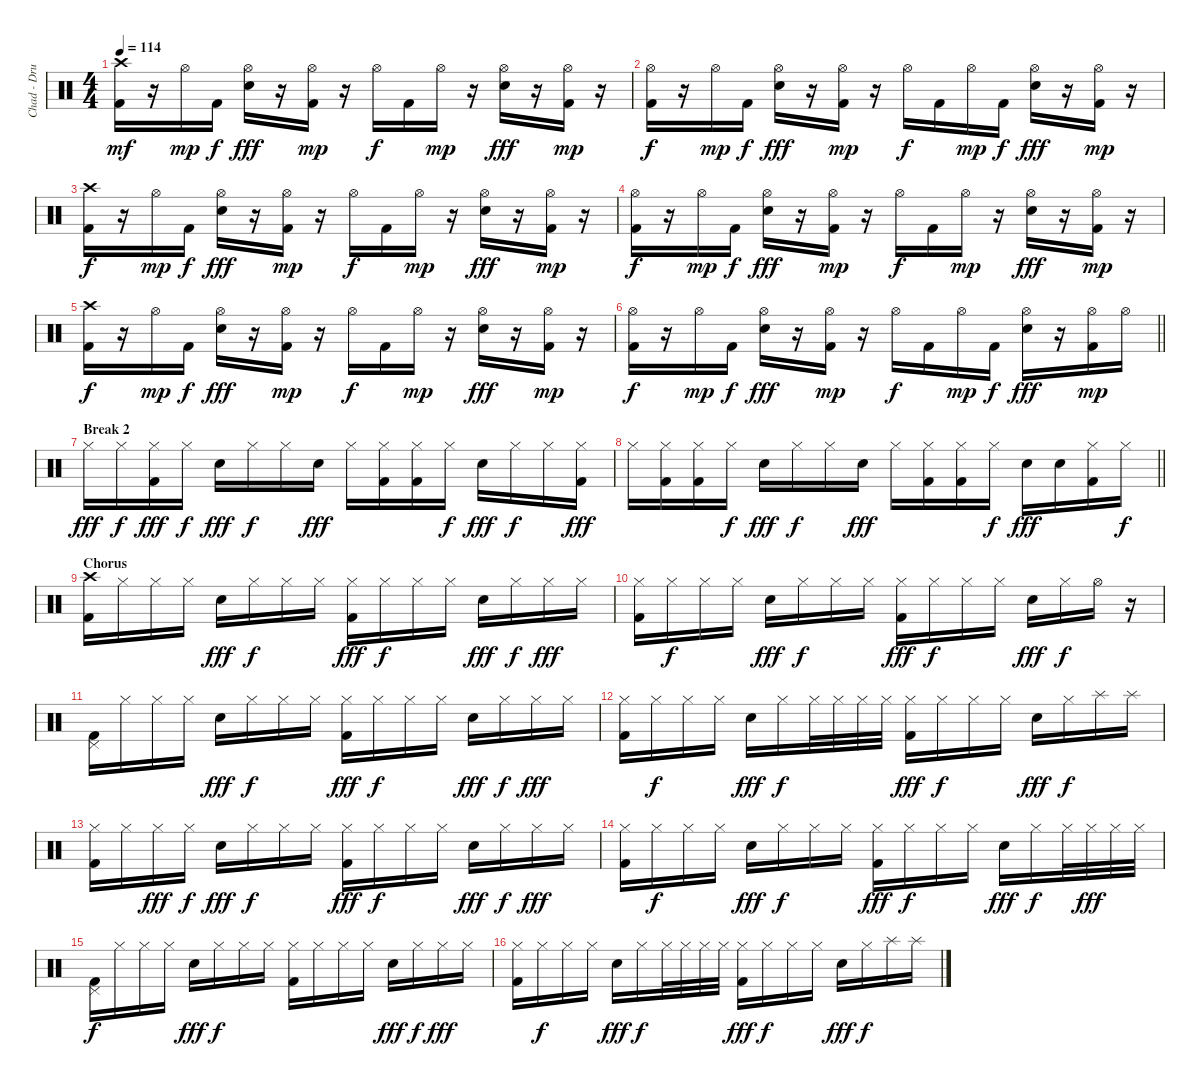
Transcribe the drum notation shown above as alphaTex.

\track ("Chad - Drums" "Chad - Dru") {instrument percussion}
\staff {score}
\articulation defaults
\ts (4 4)
\tempo 114
\clef neutral
\ks c
("Crash high (hit)" "Kick (hit) 2").16{dy mf} r.16 "Hi-Hat (open)".16{dy mp} "Kick (hit) 2".16{dy f} ("Hi-Hat (open)" "Electric Snare (hit)").16{dy fff} r.16 ("Hi-Hat (open)" "Kick (hit) 2").16{dy mp} r.16 "Hi-Hat (open)".16{dy f} "Kick (hit) 2".16 "Hi-Hat (open)".16{dy mp} r.16 ("Hi-Hat (open)" "Electric Snare (hit)").16{dy fff} r.16 ("Hi-Hat (open)" "Kick (hit) 2").16{dy mp} r.16 |
("Hi-Hat (open)" "Kick (hit) 2").16{dy f} r.16 "Hi-Hat (open)".16{dy mp} "Kick (hit) 2".16{dy f} ("Hi-Hat (open)" "Electric Snare (hit)").16{dy fff} r.16 ("Hi-Hat (open)" "Kick (hit) 2").16{dy mp} r.16 "Hi-Hat (open)".16{dy f} "Kick (hit) 2".16 "Hi-Hat (open)".16{dy mp} "Kick (hit) 2".16{dy f} ("Hi-Hat (open)" "Electric Snare (hit)").16{dy fff} r.16 ("Hi-Hat (open)" "Kick (hit) 2").16{dy mp} r.16 |
("Crash high (hit)" "Kick (hit) 2").16{dy f} r.16 "Hi-Hat (open)".16{dy mp} "Kick (hit) 2".16{dy f} ("Hi-Hat (open)" "Electric Snare (hit)").16{dy fff} r.16 ("Hi-Hat (open)" "Kick (hit) 2").16{dy mp} r.16 "Hi-Hat (open)".16{dy f} "Kick (hit) 2".16 "Hi-Hat (open)".16{dy mp} r.16 ("Hi-Hat (open)" "Electric Snare (hit)").16{dy fff} r.16 ("Hi-Hat (open)" "Kick (hit) 2").16{dy mp} r.16 |
("Hi-Hat (open)" "Kick (hit) 2").16{dy f} r.16 "Hi-Hat (open)".16{dy mp} "Kick (hit) 2".16{dy f} ("Hi-Hat (open)" "Electric Snare (hit)").16{dy fff} r.16 ("Hi-Hat (open)" "Kick (hit) 2").16{dy mp} r.16 "Hi-Hat (open)".16{dy f} "Kick (hit) 2".16 "Hi-Hat (open)".16{dy mp} r.16 ("Hi-Hat (open)" "Electric Snare (hit)").16{dy fff} r.16 ("Hi-Hat (open)" "Kick (hit) 2").16{dy mp} r.16 |
("Crash high (hit)" "Kick (hit) 2").16{dy f} r.16 "Hi-Hat (open)".16{dy mp} "Kick (hit) 2".16{dy f} ("Hi-Hat (open)" "Electric Snare (hit)").16{dy fff} r.16 ("Hi-Hat (open)" "Kick (hit) 2").16{dy mp} r.16 "Hi-Hat (open)".16{dy f} "Kick (hit) 2".16 "Hi-Hat (open)".16{dy mp} r.16 ("Hi-Hat (open)" "Electric Snare (hit)").16{dy fff} r.16 ("Hi-Hat (open)" "Kick (hit) 2").16{dy mp} r.16 |
\barLineRight lightlight
("Hi-Hat (open)" "Kick (hit) 2").16{dy f} r.16 "Hi-Hat (open)".16{dy mp} "Kick (hit) 2".16{dy f} ("Hi-Hat (open)" "Electric Snare (hit)").16{dy fff} r.16 ("Hi-Hat (open)" "Kick (hit) 2").16{dy mp} r.16 "Hi-Hat (open)".16{dy f} "Kick (hit) 2".16 "Hi-Hat (open)".16{dy mp} "Kick (hit) 2".16{dy f} ("Hi-Hat (open)" "Electric Snare (hit)").16{dy fff} r.16 ("Hi-Hat (open)" "Kick (hit) 2").16{dy mp} "Hi-Hat (open)".16 |
\section ("" "Break 2")
"Hi-Hat (closed)".16{dy fff} "Hi-Hat (closed)".16{dy f} ("Hi-Hat (closed)" "Kick (hit) 2").16{dy fff} "Hi-Hat (closed)".16{dy f} "Electric Snare (hit)".16{dy fff} "Hi-Hat (closed)".16{dy f} "Hi-Hat (closed)".16 "Electric Snare (hit)".16{dy fff} "Hi-Hat (closed)".16 ("Hi-Hat (closed)" "Kick (hit) 2").16 ("Hi-Hat (closed)" "Kick (hit) 2").16 "Hi-Hat (closed)".16{dy f} "Electric Snare (hit)".16{dy fff} "Hi-Hat (closed)".16{dy f} "Hi-Hat (closed)".16 ("Hi-Hat (closed)" "Kick (hit) 2").16{dy fff} |
\barLineRight lightlight "Hi-Hat (closed)".16
("Hi-Hat (closed)" "Kick (hit) 2").16 ("Hi-Hat (closed)" "Kick (hit) 2").16 "Hi-Hat (closed)".16{dy f} "Electric Snare (hit)".16{dy fff} "Hi-Hat (closed)".16{dy f} "Hi-Hat (closed)".16 "Electric Snare (hit)".16{dy fff} "Hi-Hat (closed)".16 ("Hi-Hat (closed)" "Kick (hit) 2").16 ("Hi-Hat (closed)" "Kick (hit) 2").16 "Hi-Hat (closed)".16{dy f} "Electric Snare (hit)".16{dy fff} "Electric Snare (hit)".16 ("Hi-Hat (closed)" "Kick (hit) 2").16 "Hi-Hat (closed)".16{dy f} |
\section ("" "Chorus")
("Crash high (hit)" "Kick (hit) 2").16 "Hi-Hat (closed)".16 "Hi-Hat (closed)".16 "Hi-Hat (closed)".16 "Electric Snare (hit)".16{dy fff} "Hi-Hat (closed)".16{dy f} "Hi-Hat (closed)".16 "Hi-Hat (closed)".16 ("Hi-Hat (closed)" "Kick (hit) 2").16{dy fff} "Hi-Hat (closed)".16{dy f} "Hi-Hat (closed)".16 "Hi-Hat (closed)".16 "Electric Snare (hit)".16{dy fff} "Hi-Hat (closed)".16{dy f} "Hi-Hat (closed)".16{dy fff} "Hi-Hat (closed)".16 |
("Hi-Hat (closed)" "Kick (hit) 2").16 "Hi-Hat (closed)".16{dy f} "Hi-Hat (closed)".16 "Hi-Hat (closed)".16 "Electric Snare (hit)".16{dy fff} "Hi-Hat (closed)".16{dy f} "Hi-Hat (closed)".16 "Hi-Hat (closed)".16 ("Hi-Hat (closed)" "Kick (hit) 2").16{dy fff} "Hi-Hat (closed)".16{dy f} "Hi-Hat (closed)".16 "Hi-Hat (closed)".16 "Electric Snare (hit)".16{dy fff} "Hi-Hat (closed)".16{dy f} "Hi-Hat (open)".16 r.16 |
("Pedal Hi-Hat (hit)" "Kick (hit) 2").16 "Hi-Hat (closed)".16 "Hi-Hat (closed)".16 "Hi-Hat (closed)".16 "Electric Snare (hit)".16{dy fff} "Hi-Hat (closed)".16{dy f} "Hi-Hat (closed)".16 "Hi-Hat (closed)".16 ("Hi-Hat (closed)" "Kick (hit) 2").16{dy fff} "Hi-Hat (closed)".16{dy f} "Hi-Hat (closed)".16 "Hi-Hat (closed)".16 "Electric Snare (hit)".16{dy fff} "Hi-Hat (closed)".16{dy f} "Hi-Hat (closed)".16{dy fff} "Hi-Hat (closed)".16 |
("Hi-Hat (closed)" "Kick (hit) 2").16 "Hi-Hat (closed)".16{dy f} "Hi-Hat (closed)".16 "Hi-Hat (closed)".16 "Electric Snare (hit)".16{dy fff} "Hi-Hat (closed)".16{dy f} "Hi-Hat (closed)".32 "Hi-Hat (closed)".32 "Hi-Hat (closed)".32 "Hi-Hat (closed)".32 ("Hi-Hat (closed)" "Kick (hit) 2").16{dy fff} "Hi-Hat (closed)".16{dy f} "Hi-Hat (closed)".16 "Hi-Hat (closed)".16 "Electric Snare (hit)".16{dy fff} "Hi-Hat (closed)".16{dy f} "Splash (hit)".16 "Splash (hit)".16 |
("Hi-Hat (closed)" "Kick (hit) 2").16 "Hi-Hat (closed)".16 "Hi-Hat (closed)".16{dy fff} "Hi-Hat (closed)".16{dy f} "Electric Snare (hit)".16{dy fff} "Hi-Hat (closed)".16{dy f} "Hi-Hat (closed)".16 "Hi-Hat (closed)".16 ("Hi-Hat (closed)" "Kick (hit) 2").16{dy fff} "Hi-Hat (closed)".16{dy f} "Hi-Hat (closed)".16 "Hi-Hat (closed)".16 "Electric Snare (hit)".16{dy fff} "Hi-Hat (closed)".16{dy f} "Hi-Hat (closed)".16{dy fff} "Hi-Hat (closed)".16 |
("Hi-Hat (closed)" "Kick (hit) 2").16 "Hi-Hat (closed)".16{dy f} "Hi-Hat (closed)".16 "Hi-Hat (closed)".16 "Electric Snare (hit)".16{dy fff} "Hi-Hat (closed)".16{dy f} "Hi-Hat (closed)".16 "Hi-Hat (closed)".16 ("Hi-Hat (closed)" "Kick (hit) 2").16{dy fff} "Hi-Hat (closed)".16{dy f} "Hi-Hat (closed)".16 "Hi-Hat (closed)".16 "Electric Snare (hit)".16{dy fff} "Hi-Hat (closed)".16{dy f} "Hi-Hat (closed)".32 "Hi-Hat (closed)".32{dy fff} "Hi-Hat (closed)".32 "Hi-Hat (closed)".32 |
("Pedal Hi-Hat (hit)" "Kick (hit) 2").16{dy f} "Hi-Hat (closed)".16 "Hi-Hat (closed)".16 "Hi-Hat (closed)".16 "Electric Snare (hit)".16{dy fff} "Hi-Hat (closed)".16{dy f} "Hi-Hat (closed)".16 "Hi-Hat (closed)".16 ("Hi-Hat (closed)" "Kick (hit) 2").16 "Hi-Hat (closed)".16 "Hi-Hat (closed)".16 "Hi-Hat (closed)".16 "Electric Snare (hit)".16{dy fff} "Hi-Hat (closed)".16{dy f} "Hi-Hat (closed)".16{dy fff} "Hi-Hat (closed)".16 |
("Hi-Hat (closed)" "Kick (hit) 2").16 "Hi-Hat (closed)".16{dy f} "Hi-Hat (closed)".16 "Hi-Hat (closed)".16 "Electric Snare (hit)".16{dy fff} "Hi-Hat (closed)".16{dy f} "Hi-Hat (closed)".32 "Hi-Hat (closed)".32 "Hi-Hat (closed)".32 "Hi-Hat (closed)".32 ("Hi-Hat (closed)" "Kick (hit) 2").16{dy fff} "Hi-Hat (closed)".16{dy f} "Hi-Hat (closed)".16 "Hi-Hat (closed)".16 "Electric Snare (hit)".16{dy fff} "Hi-Hat (closed)".16{dy f} "Splash (hit)".16 "Splash (hit)".16
